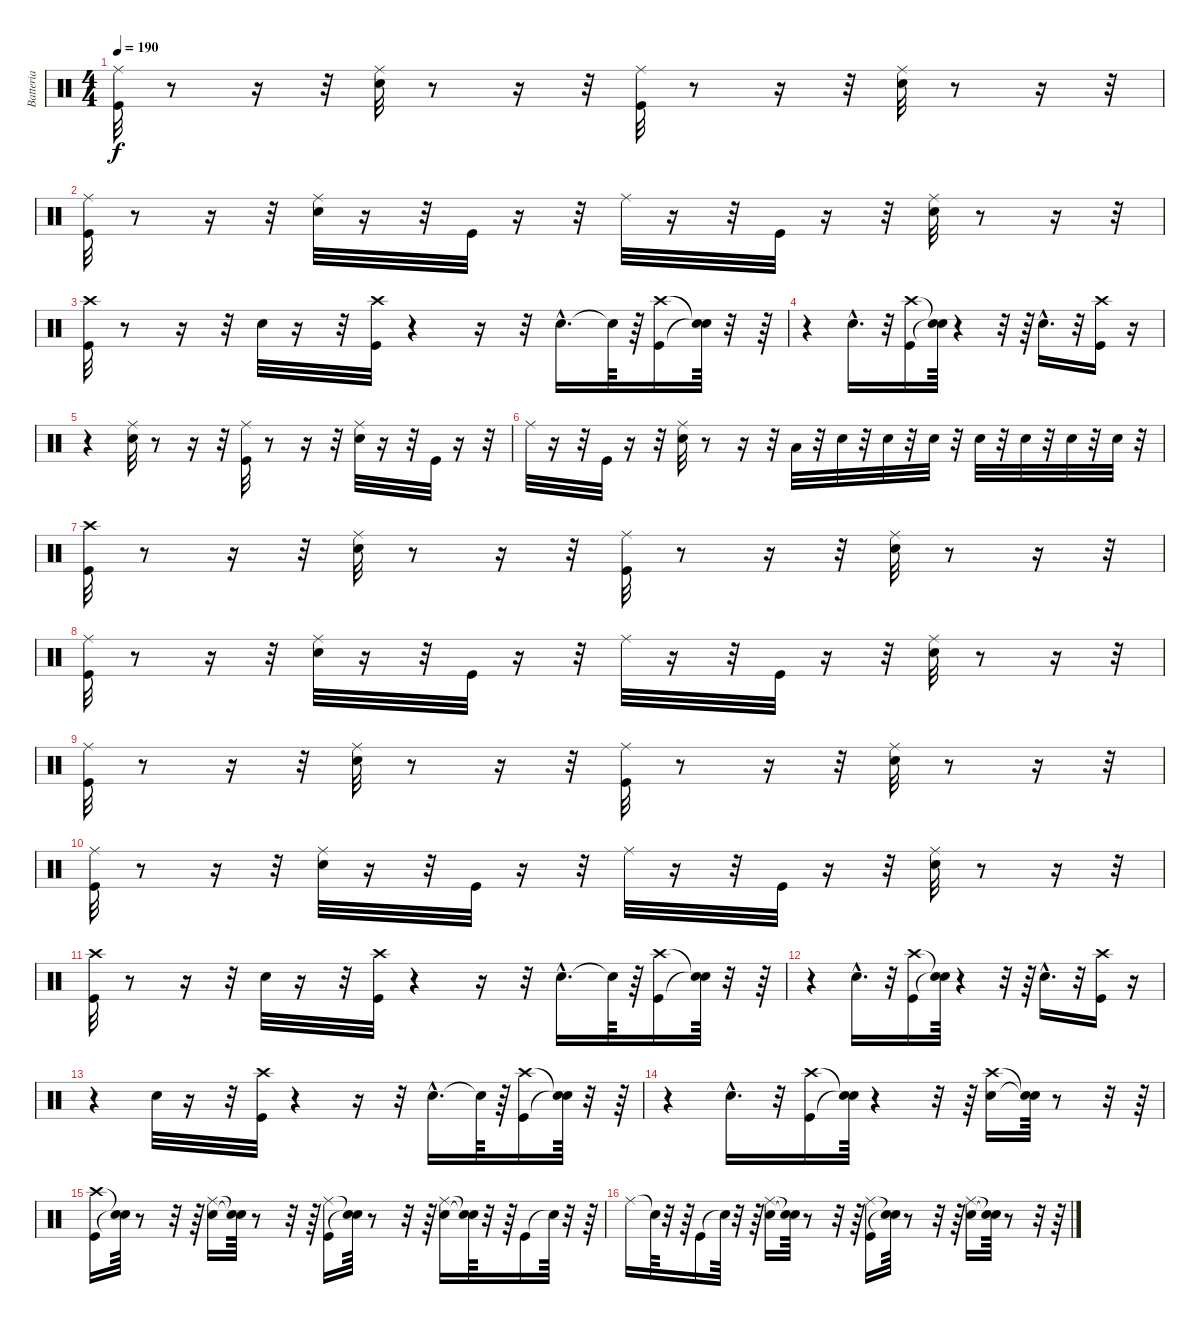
\track ("Batteria" "Batteria") {instrument percussion}
\staff {score}
\articulation defaults
\ts (4 4)
\tempo 190
\clef neutral
\ks c
("Kick (hit)" "Ride (middle)").32{dy f} r.8 r.16 r.32 ("Ride (middle)" "Snare (hit) 2").32 r.8 r.16 r.32 ("Ride (middle)" "Kick (hit)").32 r.8 r.16 r.32 ("Ride (middle)" "Snare (hit) 2").32 r.8 r.16 r.32 |
("Ride (middle)" "Kick (hit)").32 r.8 r.16 r.32 ("Ride (middle)" "Snare (hit) 2").32 r.16 r.32 "Kick (hit)".32 r.16 r.32 "Ride (middle)".32 r.16 r.32 "Kick (hit)".32 r.16 r.32 ("Ride (middle)" "Snare (hit) 2").32 r.8 r.16 r.32 |
("Crash high (hit)" "Kick (hit)").32 r.8 r.16 r.32 "Snare (hit) 2".32 r.16 r.32 ("Kick (hit)" "Crash high (hit)").32 r.4 r.16 r.32 "Snare (hit) 2"{hac}.16{d} "Snare (hit)"{t}.64 r.64 ("Crash high (hit)" "Kick (hit)").16 ("Snare (hit)"{t} "Snare (hit)"{t}).64 r.32 r.64 |
r.4 "Snare (hit) 2"{hac}.16{d} r.32 ("Kick (hit)" "Crash high (hit)").16 ("Snare (hit)"{t} "Snare (hit)"{t}).64 r.4 r.32 r.64 "Snare (hit) 2"{hac}.16{d} r.32 ("Kick (hit)" "Crash high (hit)").16 r.16 |
r.4 ("Ride (middle)" "Snare (hit) 2").32 r.8 r.16 r.32 ("Ride (middle)" "Kick (hit)").32 r.8 r.16 r.32 ("Snare (hit) 2" "Ride (middle)").32 r.16 r.32 "Kick (hit)".32 r.16 r.32 |
"Ride (middle)".32 r.16 r.32 "Kick (hit)".32 r.16 r.32 ("Ride (middle)" "Snare (hit) 2").32 r.8 r.16 r.32 "Low Tom (hit)".32 r.32 "Snare (hit) 2".32 r.32 "Snare (hit) 2".32 r.32 "Snare (hit) 2".32 r.32 "Snare (hit) 2".32 r.32 "Snare (hit) 2".32 r.32 "Snare (hit) 2".32 r.32 "Snare (hit) 2".32 r.32 |
("Kick (hit)" "Crash high (hit)").32 r.8 r.16 r.32 ("Snare (hit) 2" "Ride (middle)").32 r.8 r.16 r.32 ("Kick (hit)" "Ride (middle)").32 r.8 r.16 r.32 ("Snare (hit) 2" "Ride (middle)").32 r.8 r.16 r.32 |
("Kick (hit)" "Ride (middle)").32 r.8 r.16 r.32 ("Snare (hit) 2" "Ride (middle)").32 r.16 r.32 "Kick (hit)".32 r.16 r.32 "Ride (middle)".32 r.16 r.32 "Kick (hit)".32 r.16 r.32 ("Snare (hit) 2" "Ride (middle)").32 r.8 r.16 r.32 |
("Ride (middle)" "Kick (hit)").32 r.8 r.16 r.32 ("Snare (hit) 2" "Ride (middle)").32 r.8 r.16 r.32 ("Kick (hit)" "Ride (middle)").32 r.8 r.16 r.32 ("Ride (middle)" "Snare (hit) 2").32 r.8 r.16 r.32 |
("Ride (middle)" "Kick (hit)").32 r.8 r.16 r.32 ("Snare (hit) 2" "Ride (middle)").32 r.16 r.32 "Kick (hit)".32 r.16 r.32 "Ride (middle)".32 r.16 r.32 "Kick (hit)".32 r.16 r.32 ("Ride (middle)" "Snare (hit) 2").32 r.8 r.16 r.32 |
("Kick (hit)" "Crash high (hit)").32 r.8 r.16 r.32 "Snare (hit) 2".32 r.16 r.32 ("Kick (hit)" "Crash high (hit)").32 r.4 r.16 r.32 "Snare (hit) 2"{hac}.16{d} "Snare (hit)"{t}.64 r.64 ("Kick (hit)" "Crash high (hit)").16 ("Snare (hit)"{t} "Snare (hit)"{t}).64 r.32 r.64 |
r.4 "Snare (hit) 2"{hac}.16{d} r.32 ("Crash high (hit)" "Kick (hit)").16 ("Snare (hit)"{t} "Snare (hit)"{t}).64 r.4 r.32 r.64 "Snare (hit) 2"{hac}.16{d} r.32 ("Kick (hit)" "Crash high (hit)").16 r.16 |
r.4 "Snare (hit) 2".32 r.16 r.32 ("Crash high (hit)" "Kick (hit)").32 r.4 r.16 r.32 "Snare (hit) 2"{hac}.16{d} "Snare (hit)"{t}.64 r.64 ("Kick (hit)" "Crash high (hit)").16 ("Snare (hit)"{t} "Snare (hit)"{t}).64 r.32 r.64 |
r.4 "Snare (hit) 2"{hac}.16{d} r.32 ("Kick (hit)" "Crash high (hit)").16 ("Snare (hit)"{t} "Snare (hit)"{t}).64 r.4 r.32 r.64 ("Snare (hit) 2" "Crash high (hit)").16 ("Snare (hit)"{t} "Snare (hit)"{t}).64 r.8 r.32 r.64 |
("Kick (hit)" "Crash high (hit)").16 ("Snare (hit)"{t} "Snare (hit)"{t}).64 r.8 r.32 r.64 ("Ride (middle)" "Snare (hit) 2").16 ("Snare (hit)"{t} "Snare (hit)"{t}).64 r.8 r.32 r.64 ("Ride (middle)" "Kick (hit)").16 ("Snare (hit)"{t} "Snare (hit)"{t}).64 r.8 r.32 r.64 ("Ride (middle)" "Snare (hit) 2").16 ("Snare (hit)"{t} "Snare (hit)"{t}).64 r.32 r.64 "Kick (hit)".16 "Snare (hit)"{t}.64 r.32 r.64 |
"Ride (middle)".16 "Snare (hit)"{t}.64 r.32 r.64 "Kick (hit)".16 "Snare (hit)"{t}.64 r.32 r.64 ("Snare (hit) 2" "Ride (middle)").16 ("Snare (hit)"{t} "Snare (hit)"{t}).64 r.8 r.32 r.64 ("Kick (hit)" "Ride (middle)").16 ("Snare (hit)"{t} "Snare (hit)"{t}).64 r.8 r.32 r.64 ("Snare (hit) 2" "Ride (middle)").16 ("Snare (hit)"{t} "Snare (hit)"{t}).64 r.8 r.32 r.64
